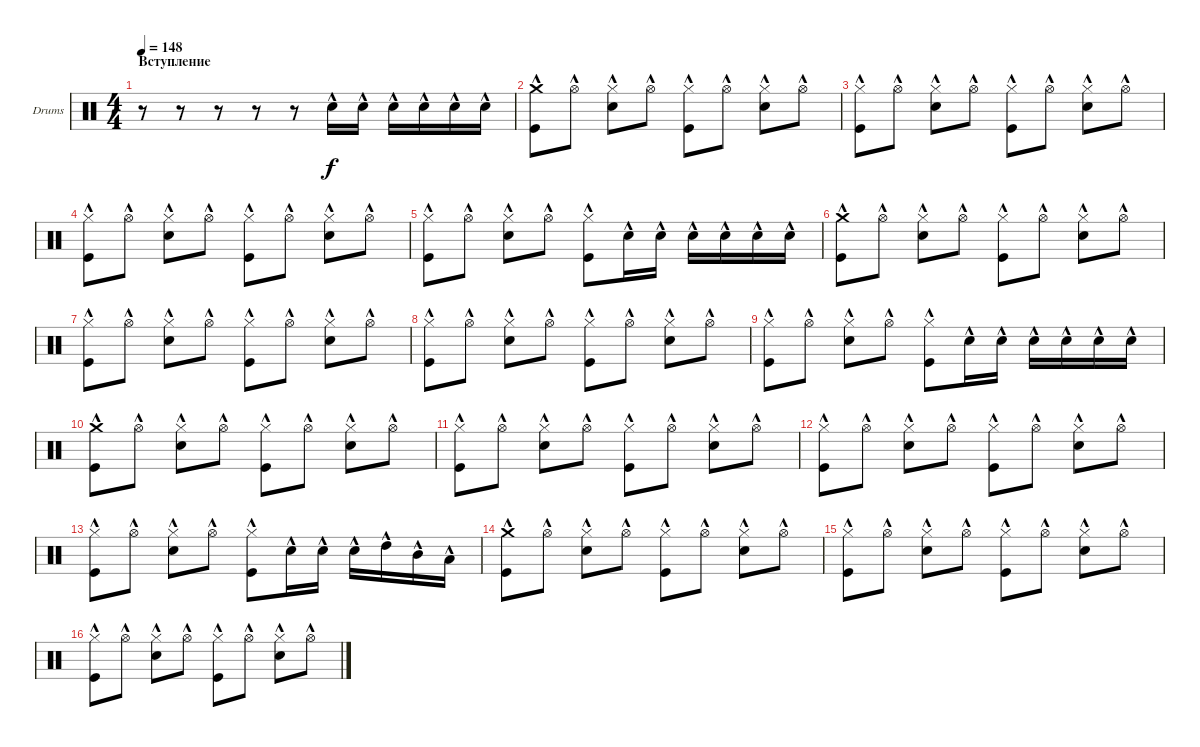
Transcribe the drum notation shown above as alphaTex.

\bracketExtendMode groupsimilarinstruments
\firstSystemTrackNameOrientation horizontal
\otherSystemsTrackNameOrientation horizontal
\track ("Drumkit" "Drums") {instrument percussion}
\staff {score}
\articulation defaults
\ts (4 4)
\section ("" "Вступление")
\tempo 148
\clef neutral
\ks c
r.8{dy f} r.8 r.8 r.8 r.8 "Snare (hit) 2"{hac}.16 "Snare (hit) 2"{hac}.16 "Snare (hit) 2"{hac}.16 "Snare (hit) 2"{hac}.16 "Snare (hit) 2"{hac}.16 "Snare (hit) 2"{hac}.16 |
("Kick (hit)"{hac} "Crash medium (hit)"{hac}).8 "Hi-Hat (open)"{hac}.8 ("Snare (hit) 2"{hac} "Hi-Hat (closed)"{hac}).8 "Hi-Hat (open)"{hac}.8 ("Kick (hit)"{hac} "Hi-Hat (closed)"{hac}).8 "Hi-Hat (open)"{hac}.8 ("Snare (hit) 2"{hac} "Hi-Hat (closed)"{hac}).8 "Hi-Hat (open)"{hac}.8 |
("Kick (hit)"{hac} "Hi-Hat (closed)"{hac}).8 "Hi-Hat (open)"{hac}.8 ("Snare (hit) 2"{hac} "Hi-Hat (closed)"{hac}).8 "Hi-Hat (open)"{hac}.8 ("Kick (hit)"{hac} "Hi-Hat (closed)"{hac}).8 "Hi-Hat (open)"{hac}.8 ("Snare (hit) 2"{hac} "Hi-Hat (closed)"{hac}).8 "Hi-Hat (open)"{hac}.8 |
("Kick (hit)"{hac} "Hi-Hat (closed)"{hac}).8 "Hi-Hat (open)"{hac}.8 ("Snare (hit) 2"{hac} "Hi-Hat (closed)"{hac}).8 "Hi-Hat (open)"{hac}.8 ("Kick (hit)"{hac} "Hi-Hat (closed)"{hac}).8 "Hi-Hat (open)"{hac}.8 ("Snare (hit) 2"{hac} "Hi-Hat (closed)"{hac}).8 "Hi-Hat (open)"{hac}.8 |
("Kick (hit)"{hac} "Hi-Hat (closed)"{hac}).8 "Hi-Hat (open)"{hac}.8 ("Snare (hit) 2"{hac} "Hi-Hat (closed)"{hac}).8 "Hi-Hat (open)"{hac}.8 ("Kick (hit)"{hac} "Hi-Hat (closed)"{hac}).8 "Snare (hit) 2"{hac}.16 "Snare (hit) 2"{hac}.16 "Snare (hit) 2"{hac}.16 "Snare (hit) 2"{hac}.16 "Snare (hit) 2"{hac}.16 "Snare (hit) 2"{hac}.16 |
("Kick (hit)"{hac} "Crash medium (hit)"{hac}).8 "Hi-Hat (open)"{hac}.8 ("Snare (hit) 2"{hac} "Hi-Hat (closed)"{hac}).8 "Hi-Hat (open)"{hac}.8 ("Kick (hit)"{hac} "Hi-Hat (closed)"{hac}).8 "Hi-Hat (open)"{hac}.8 ("Snare (hit) 2"{hac} "Hi-Hat (closed)"{hac}).8 "Hi-Hat (open)"{hac}.8 |
("Kick (hit)"{hac} "Hi-Hat (closed)"{hac}).8 "Hi-Hat (open)"{hac}.8 ("Snare (hit) 2"{hac} "Hi-Hat (closed)"{hac}).8 "Hi-Hat (open)"{hac}.8 ("Kick (hit)"{hac} "Hi-Hat (closed)"{hac}).8 "Hi-Hat (open)"{hac}.8 ("Snare (hit) 2"{hac} "Hi-Hat (closed)"{hac}).8 "Hi-Hat (open)"{hac}.8 |
("Kick (hit)"{hac} "Hi-Hat (closed)"{hac}).8 "Hi-Hat (open)"{hac}.8 ("Snare (hit) 2"{hac} "Hi-Hat (closed)"{hac}).8 "Hi-Hat (open)"{hac}.8 ("Kick (hit)"{hac} "Hi-Hat (closed)"{hac}).8 "Hi-Hat (open)"{hac}.8 ("Snare (hit) 2"{hac} "Hi-Hat (closed)"{hac}).8 "Hi-Hat (open)"{hac}.8 |
("Kick (hit)"{hac} "Hi-Hat (closed)"{hac}).8 "Hi-Hat (open)"{hac}.8 ("Snare (hit) 2"{hac} "Hi-Hat (closed)"{hac}).8 "Hi-Hat (open)"{hac}.8 ("Kick (hit)"{hac} "Hi-Hat (closed)"{hac}).8 "Snare (hit) 2"{hac}.16 "Snare (hit) 2"{hac}.16 "Snare (hit) 2"{hac}.16 "Snare (hit) 2"{hac}.16 "Snare (hit) 2"{hac}.16 "Snare (hit) 2"{hac}.16 |
("Kick (hit)"{hac} "Crash medium (hit)"{hac}).8 "Hi-Hat (open)"{hac}.8 ("Snare (hit) 2"{hac} "Hi-Hat (closed)"{hac}).8 "Hi-Hat (open)"{hac}.8 ("Kick (hit)"{hac} "Hi-Hat (closed)"{hac}).8 "Hi-Hat (open)"{hac}.8 ("Snare (hit) 2"{hac} "Hi-Hat (closed)"{hac}).8 "Hi-Hat (open)"{hac}.8 |
("Kick (hit)"{hac} "Hi-Hat (closed)"{hac}).8 "Hi-Hat (open)"{hac}.8 ("Snare (hit) 2"{hac} "Hi-Hat (closed)"{hac}).8 "Hi-Hat (open)"{hac}.8 ("Kick (hit)"{hac} "Hi-Hat (closed)"{hac}).8 "Hi-Hat (open)"{hac}.8 ("Snare (hit) 2"{hac} "Hi-Hat (closed)"{hac}).8 "Hi-Hat (open)"{hac}.8 |
("Kick (hit)"{hac} "Hi-Hat (closed)"{hac}).8 "Hi-Hat (open)"{hac}.8 ("Snare (hit) 2"{hac} "Hi-Hat (closed)"{hac}).8 "Hi-Hat (open)"{hac}.8 ("Kick (hit)"{hac} "Hi-Hat (closed)"{hac}).8 "Hi-Hat (open)"{hac}.8 ("Snare (hit) 2"{hac} "Hi-Hat (closed)"{hac}).8 "Hi-Hat (open)"{hac}.8 |
("Kick (hit)"{hac} "Hi-Hat (closed)"{hac}).8 "Hi-Hat (open)"{hac}.8 ("Snare (hit) 2"{hac} "Hi-Hat (closed)"{hac}).8 "Hi-Hat (open)"{hac}.8 ("Kick (hit)"{hac} "Hi-Hat (closed)"{hac}).8 "Snare (hit) 2"{hac}.16 "Snare (hit) 2"{hac}.16 "Snare (hit) 2"{hac}.16 "High Tom (hit)"{hac}.16 "Mid Tom (hit)"{hac}.16 "Low Tom (hit)"{hac}.16 |
("Kick (hit)"{hac} "Crash medium (hit)"{hac}).8 "Hi-Hat (open)"{hac}.8 ("Snare (hit) 2"{hac} "Hi-Hat (closed)"{hac}).8 "Hi-Hat (open)"{hac}.8 ("Kick (hit)"{hac} "Hi-Hat (closed)"{hac}).8 "Hi-Hat (open)"{hac}.8 ("Snare (hit) 2"{hac} "Hi-Hat (closed)"{hac}).8 "Hi-Hat (open)"{hac}.8 |
("Kick (hit)"{hac} "Hi-Hat (closed)"{hac}).8 "Hi-Hat (open)"{hac}.8 ("Snare (hit) 2"{hac} "Hi-Hat (closed)"{hac}).8 "Hi-Hat (open)"{hac}.8 ("Kick (hit)"{hac} "Hi-Hat (closed)"{hac}).8 "Hi-Hat (open)"{hac}.8 ("Snare (hit) 2"{hac} "Hi-Hat (closed)"{hac}).8 "Hi-Hat (open)"{hac}.8 |
("Kick (hit)"{hac} "Hi-Hat (closed)"{hac}).8 "Hi-Hat (open)"{hac}.8 ("Snare (hit) 2"{hac} "Hi-Hat (closed)"{hac}).8 "Hi-Hat (open)"{hac}.8 ("Kick (hit)"{hac} "Hi-Hat (closed)"{hac}).8 "Hi-Hat (open)"{hac}.8 ("Snare (hit) 2"{hac} "Hi-Hat (closed)"{hac}).8 "Hi-Hat (open)"{hac}.8
